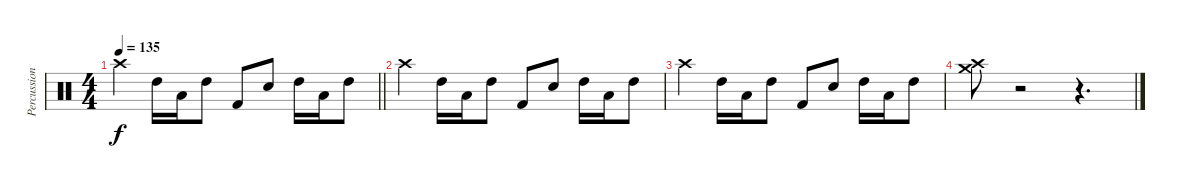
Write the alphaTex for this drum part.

\track ("Percussion" "Percussion") {instrument percussion}
\staff {score}
\articulation defaults
\ts (4 4)
\tempo 135
\clef neutral
\barLineRight lightlight
\ks c "Crash high (hit)".4{dy f} "High Tom (hit)".16 "Low Tom (hit)".16 "High Tom (hit)".8 "Kick (hit) 2".8 "Snare (hit) 2".8 "High Tom (hit)".16 "Low Tom (hit)".16 "High Tom (hit)".8
|
"Crash high (hit)".4 "High Tom (hit)".16 "Low Tom (hit)".16 "High Tom (hit)".8 "Kick (hit) 2".8 "Snare (hit) 2".8 "High Tom (hit)".16 "Low Tom (hit)".16 "High Tom (hit)".8 |
"Crash high (hit)".4 "High Tom (hit)".16 "Low Tom (hit)".16 "High Tom (hit)".8 "Kick (hit) 2".8 "Snare (hit) 2".8 "High Tom (hit)".16 "Low Tom (hit)".16 "High Tom (hit)".8 |
("Crash high (hit)" "Crash medium (hit)").8 r.2 r.4{d}
